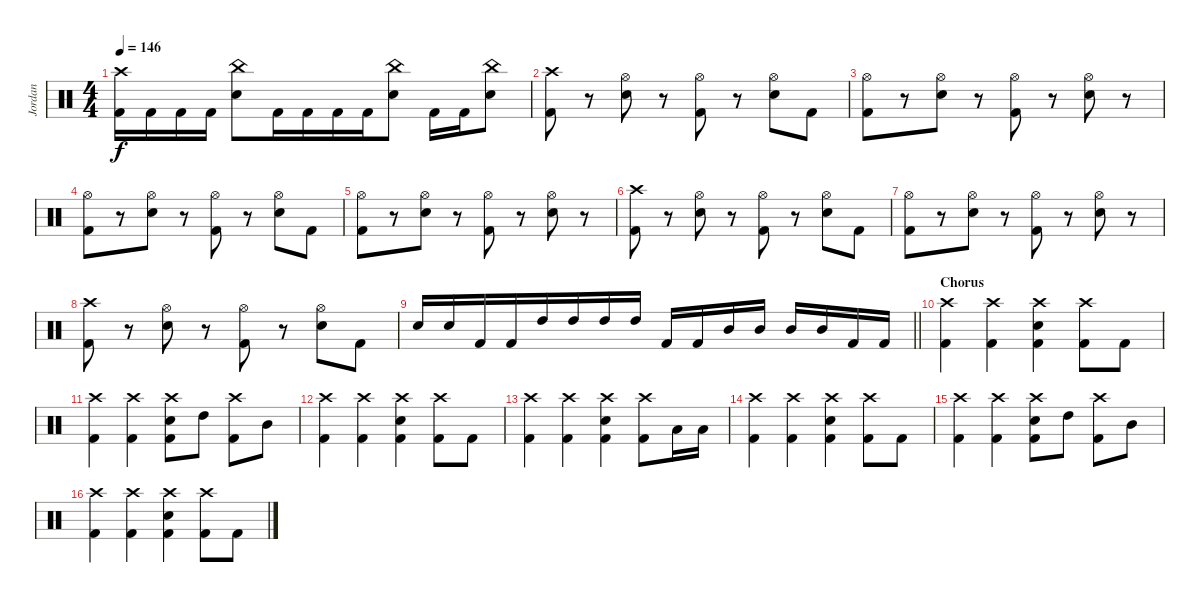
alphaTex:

\track ("Jordan" "Jordan") {instrument percussion}
\staff {score}
\articulation defaults
\ts (4 4)
\tempo 146
\clef neutral
\ks c
("Crash high (hit)" "Kick (hit) 2").16{dy f beam merge} "Kick (hit) 2".16{beam merge} "Kick (hit) 2".16{beam merge} "Kick (hit) 2".16 ("China (hit)" "Snare (hit) 2").8 "Kick (hit) 2".16{beam merge} "Kick (hit) 2".16{beam merge} "Kick (hit) 2".16{beam merge} "Kick (hit) 2".16 ("China (hit)" "Snare (hit) 2").8 "Kick (hit) 2".16{beam merge} "Kick (hit) 2".16{beam merge} ("China (hit)" "Snare (hit) 2").8 |
("Crash high (hit)" "Kick (hit) 2").8 r.8 ("Hi-Hat (open)" "Snare (hit) 2").8 r.8{beam merge} ("Hi-Hat (open)" "Kick (hit) 2").8 r.8 ("Hi-Hat (open)" "Snare (hit) 2").8 "Kick (hit) 2".8 |
("Hi-Hat (open)" "Kick (hit) 2").8{beam merge} r.8 ("Hi-Hat (open)" "Snare (hit) 2").8 r.8{beam merge} ("Hi-Hat (open)" "Kick (hit) 2").8 r.8 ("Hi-Hat (open)" "Snare (hit) 2").8 r.8 |
("Hi-Hat (open)" "Kick (hit) 2").8{beam merge} r.8 ("Hi-Hat (open)" "Snare (hit) 2").8 r.8{beam merge} ("Hi-Hat (open)" "Kick (hit) 2").8 r.8 ("Hi-Hat (open)" "Snare (hit) 2").8 "Kick (hit) 2".8 |
("Hi-Hat (open)" "Kick (hit) 2").8{beam merge} r.8 ("Hi-Hat (open)" "Snare (hit) 2").8 r.8{beam merge} ("Hi-Hat (open)" "Kick (hit) 2").8 r.8 ("Hi-Hat (open)" "Snare (hit) 2").8 r.8 |
("Crash high (hit)" "Kick (hit) 2").8 r.8 ("Hi-Hat (open)" "Snare (hit) 2").8 r.8{beam merge} ("Hi-Hat (open)" "Kick (hit) 2").8 r.8 ("Hi-Hat (open)" "Snare (hit) 2").8 "Kick (hit) 2".8 |
("Hi-Hat (open)" "Kick (hit) 2").8{beam merge} r.8 ("Hi-Hat (open)" "Snare (hit) 2").8 r.8{beam merge} ("Hi-Hat (open)" "Kick (hit) 2").8 r.8 ("Hi-Hat (open)" "Snare (hit) 2").8 r.8 |
("Crash high (hit)" "Kick (hit) 2").8 r.8 ("Hi-Hat (open)" "Snare (hit) 2").8 r.8{beam merge} ("Hi-Hat (open)" "Kick (hit) 2").8 r.8 ("Hi-Hat (open)" "Snare (hit) 2").8 "Kick (hit) 2".8 |
\barLineRight lightlight "Snare (hit) 2".16 "Snare (hit) 2".16{beam merge} "Kick (hit) 2".16{beam merge} "Kick (hit) 2".16{beam merge} "High Tom (hit)".16{beam merge} "High Tom (hit)".16{beam merge} "High Tom (hit)".16 "High Tom (hit)".16 "Kick (hit) 2".16{beam merge} "Kick (hit) 2".16 "Mid Tom (hit)".16 "Mid Tom (hit)".16 "Mid Tom (hit)".16{beam merge} "Mid Tom (hit)".16 "Kick (hit) 2".16 "Kick (hit) 2".16
|
\section ("" "Chorus")
("Crash high (hit)" "Kick (hit) 2").4 ("Crash high (hit)" "Kick (hit) 2").4{beam merge} ("Crash high (hit)" "Snare (hit) 2" "Kick (hit) 2").4 ("Crash high (hit)" "Kick (hit) 2").8{beam merge} "Kick (hit) 2".8 |
("Crash high (hit)" "Kick (hit) 2").4 ("Crash high (hit)" "Kick (hit) 2").4{beam merge} ("Crash high (hit)" "Snare (hit) 2" "Kick (hit) 2").8 "High Tom (hit)".8 ("Crash high (hit)" "Kick (hit) 2").8{beam merge} "Mid Tom (hit)".8 |
("Crash high (hit)" "Kick (hit) 2").4 ("Crash high (hit)" "Kick (hit) 2").4{beam merge} ("Crash high (hit)" "Snare (hit) 2" "Kick (hit) 2").4 ("Crash high (hit)" "Kick (hit) 2").8{beam merge} "Kick (hit) 2".8 |
("Crash high (hit)" "Kick (hit) 2").4 ("Crash high (hit)" "Kick (hit) 2").4{beam merge} ("Crash high (hit)" "Snare (hit) 2" "Kick (hit) 2").4 ("Crash high (hit)" "Kick (hit) 2").8 "Low Tom (hit)".16 "Low Tom (hit)".16 |
("Crash high (hit)" "Kick (hit) 2").4 ("Crash high (hit)" "Kick (hit) 2").4{beam merge} ("Crash high (hit)" "Snare (hit) 2" "Kick (hit) 2").4 ("Crash high (hit)" "Kick (hit) 2").8{beam merge} "Kick (hit) 2".8 |
("Crash high (hit)" "Kick (hit) 2").4 ("Crash high (hit)" "Kick (hit) 2").4{beam merge} ("Crash high (hit)" "Snare (hit) 2" "Kick (hit) 2").8 "High Tom (hit)".8 ("Crash high (hit)" "Kick (hit) 2").8{beam merge} "Mid Tom (hit)".8 |
("Crash high (hit)" "Kick (hit) 2").4 ("Crash high (hit)" "Kick (hit) 2").4{beam merge} ("Crash high (hit)" "Snare (hit) 2" "Kick (hit) 2").4 ("Crash high (hit)" "Kick (hit) 2").8{beam merge} "Kick (hit) 2".8
